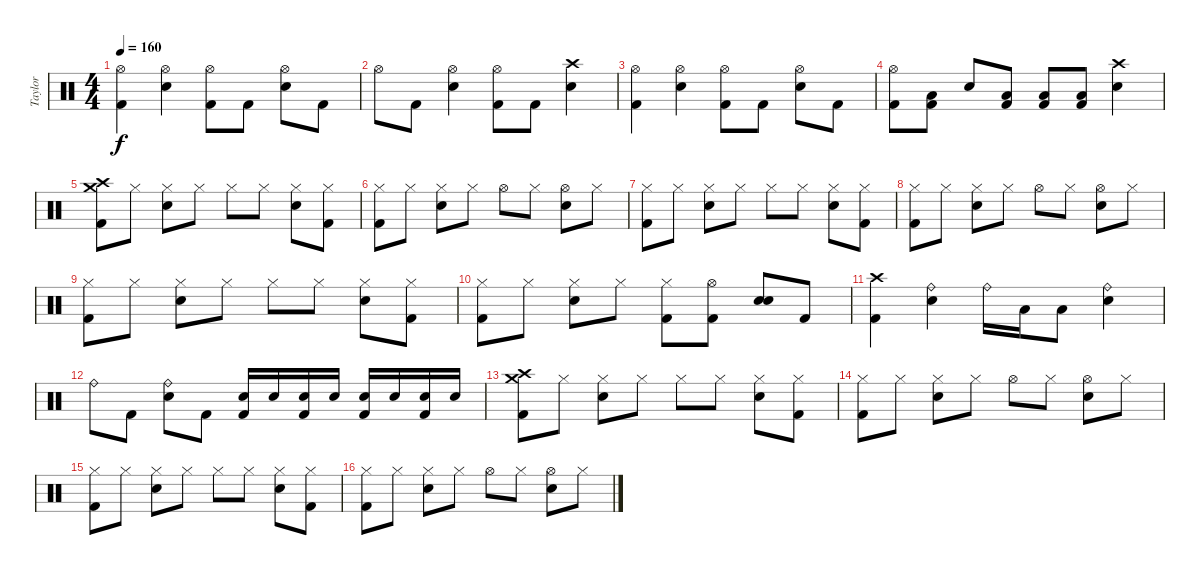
\track ("Taylor" "Taylor") {instrument percussion}
\staff {score}
\articulation defaults
\ts (4 4)
\tempo 160
\clef neutral
\ks c
("Hi-Hat (open)" "Kick (hit) 2").4{dy f} ("Hi-Hat (open)" "Electric Snare (hit)").4 ("Hi-Hat (open)" "Kick (hit) 2").8 "Kick (hit) 2".8 ("Hi-Hat (open)" "Electric Snare (hit)").8 "Kick (hit) 2".8 |
"Hi-Hat (open)".8 "Kick (hit) 2".8 ("Hi-Hat (open)" "Electric Snare (hit)").4 ("Hi-Hat (open)" "Kick (hit) 2").8 "Kick (hit) 2".8 ("Crash high (hit)" "Electric Snare (hit)").4 |
("Hi-Hat (open)" "Kick (hit) 2").4 ("Hi-Hat (open)" "Electric Snare (hit)").4 ("Hi-Hat (open)" "Kick (hit) 2").8 "Kick (hit) 2".8 ("Hi-Hat (open)" "Electric Snare (hit)").8 "Kick (hit) 2".8 |
("Hi-Hat (open)" "Kick (hit) 2").8 ("Low Tom (hit)" "Kick (hit) 2").8 "Electric Snare (hit)".8 ("Low Tom (hit)" "Kick (hit) 2").8 ("Low Tom (hit)" "Kick (hit) 2").8 ("Low Tom (hit)" "Kick (hit) 2").8 ("Crash high (hit)" "Electric Snare (hit)").4 |
("Crash high (hit)" "Crash medium (hit)" "Kick (hit) 2").8 "Hi-Hat (closed)".8 ("Hi-Hat (closed)" "Electric Snare (hit)").8 "Hi-Hat (closed)".8 "Hi-Hat (closed)".8 "Hi-Hat (closed)".8 ("Hi-Hat (closed)" "Electric Snare (hit)").8 ("Hi-Hat (closed)" "Kick (hit) 2").8 |
("Hi-Hat (closed)" "Kick (hit) 2").8 "Hi-Hat (closed)".8 ("Hi-Hat (closed)" "Electric Snare (hit)").8 "Hi-Hat (closed)".8 "Hi-Hat (open)".8 "Hi-Hat (closed)".8 ("Hi-Hat (open)" "Electric Snare (hit)").8 "Hi-Hat (closed)".8 |
("Hi-Hat (closed)" "Kick (hit) 2").8 "Hi-Hat (closed)".8 ("Hi-Hat (closed)" "Electric Snare (hit)").8 "Hi-Hat (closed)".8 "Hi-Hat (closed)".8 "Hi-Hat (closed)".8 ("Hi-Hat (closed)" "Electric Snare (hit)").8 ("Hi-Hat (closed)" "Kick (hit) 2").8 |
("Hi-Hat (closed)" "Kick (hit) 2").8 "Hi-Hat (closed)".8 ("Hi-Hat (closed)" "Electric Snare (hit)").8 "Hi-Hat (closed)".8 "Hi-Hat (open)".8 "Hi-Hat (closed)".8 ("Hi-Hat (open)" "Electric Snare (hit)").8 "Hi-Hat (closed)".8 |
("Hi-Hat (closed)" "Kick (hit) 2").8 "Hi-Hat (closed)".8 ("Hi-Hat (closed)" "Electric Snare (hit)").8 "Hi-Hat (closed)".8 "Hi-Hat (closed)".8 "Hi-Hat (closed)".8 ("Hi-Hat (closed)" "Electric Snare (hit)").8 ("Hi-Hat (closed)" "Kick (hit) 2").8 |
("Hi-Hat (closed)" "Kick (hit) 2").8 "Hi-Hat (closed)".8 ("Hi-Hat (closed)" "Electric Snare (hit)").8 "Hi-Hat (closed)".8 ("Hi-Hat (closed)" "Kick (hit) 2").8 ("Hi-Hat (open)" "Kick (hit) 2").8 ("Electric Snare (hit)" "Electric Snare (hit)").8 "Kick (hit) 2".8 |
("Crash high (hit)" "Kick (hit) 2").4 ("Ride (bell)" "Electric Snare (hit)").4 "Ride (bell)".16 "Low Tom (hit)".16 "Low Tom (hit)".8 ("Ride (bell)" "Electric Snare (hit)").4 |
"Ride (bell)".8 "Kick (hit) 2".8 ("Ride (bell)" "Electric Snare (hit)").8 "Kick (hit) 2".8 ("Electric Snare (hit)" "Kick (hit) 2").16 "Electric Snare (hit)".16 ("Electric Snare (hit)" "Kick (hit) 2").16 "Electric Snare (hit)".16 ("Electric Snare (hit)" "Kick (hit) 2").16 "Electric Snare (hit)".16 ("Electric Snare (hit)" "Kick (hit) 2").16 "Electric Snare (hit)".16 |
("Crash high (hit)" "Crash medium (hit)" "Kick (hit) 2").8 "Hi-Hat (closed)".8 ("Hi-Hat (closed)" "Electric Snare (hit)").8 "Hi-Hat (closed)".8 "Hi-Hat (closed)".8 "Hi-Hat (closed)".8 ("Hi-Hat (closed)" "Electric Snare (hit)").8 ("Hi-Hat (closed)" "Kick (hit) 2").8 |
("Hi-Hat (closed)" "Kick (hit) 2").8 "Hi-Hat (closed)".8 ("Hi-Hat (closed)" "Electric Snare (hit)").8 "Hi-Hat (closed)".8 "Hi-Hat (open)".8 "Hi-Hat (closed)".8 ("Hi-Hat (open)" "Electric Snare (hit)").8 "Hi-Hat (closed)".8 |
("Hi-Hat (closed)" "Kick (hit) 2").8 "Hi-Hat (closed)".8 ("Hi-Hat (closed)" "Electric Snare (hit)").8 "Hi-Hat (closed)".8 "Hi-Hat (closed)".8 "Hi-Hat (closed)".8 ("Hi-Hat (closed)" "Electric Snare (hit)").8 ("Hi-Hat (closed)" "Kick (hit) 2").8 |
("Hi-Hat (closed)" "Kick (hit) 2").8 "Hi-Hat (closed)".8 ("Hi-Hat (closed)" "Electric Snare (hit)").8 "Hi-Hat (closed)".8 "Hi-Hat (open)".8 "Hi-Hat (closed)".8 ("Hi-Hat (open)" "Electric Snare (hit)").8 "Hi-Hat (closed)".8
